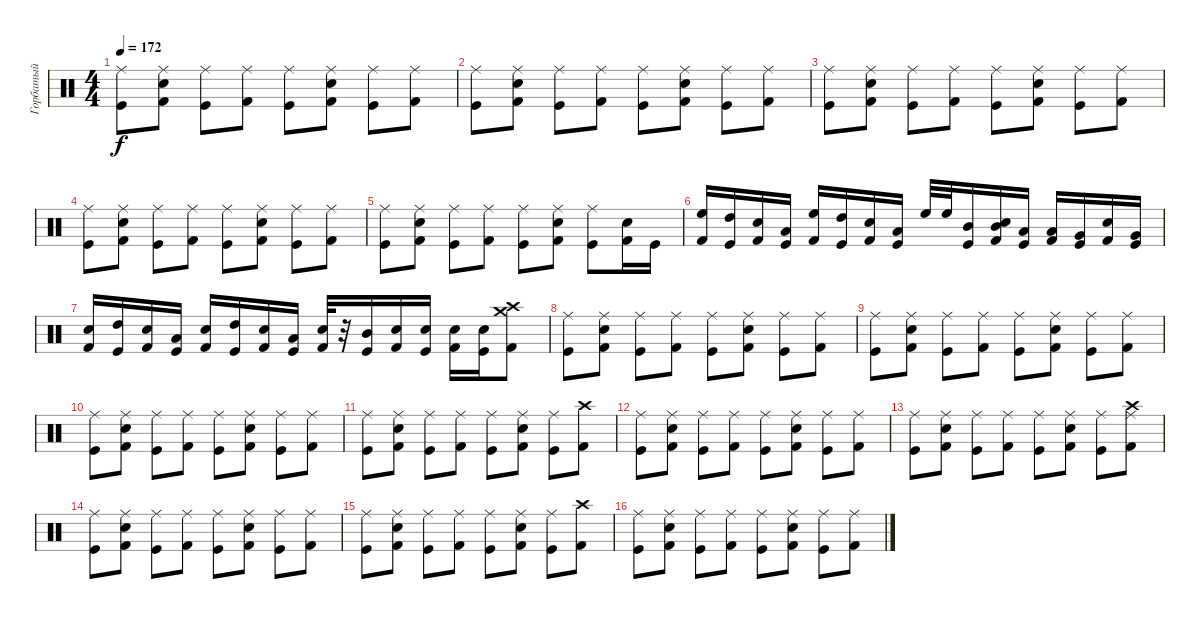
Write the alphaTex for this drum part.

\track ("Горбатый" "Горбатый") {instrument percussion}
\staff {score}
\articulation defaults
\ts (4 4)
\tempo 172
\clef neutral
\ks c
("Ride (middle)" "Kick (hit)").8{dy f} ("Electric Snare (hit)" "Ride (middle)" "Kick (hit) 2").8 ("Ride (middle)" "Kick (hit)").8 ("Ride (middle)" "Kick (hit) 2").8 ("Ride (middle)" "Kick (hit)").8 ("Electric Snare (hit)" "Ride (middle)" "Kick (hit) 2").8 ("Ride (middle)" "Kick (hit)").8 ("Ride (middle)" "Kick (hit) 2").8 |
("Ride (middle)" "Kick (hit)").8 ("Electric Snare (hit)" "Ride (middle)" "Kick (hit) 2").8 ("Ride (middle)" "Kick (hit)").8 ("Ride (middle)" "Kick (hit) 2").8 ("Ride (middle)" "Kick (hit)").8 ("Electric Snare (hit)" "Ride (middle)" "Kick (hit) 2").8 ("Ride (middle)" "Kick (hit)").8 ("Ride (middle)" "Kick (hit) 2").8 |
("Ride (middle)" "Kick (hit)").8 ("Electric Snare (hit)" "Ride (middle)" "Kick (hit) 2").8 ("Ride (middle)" "Kick (hit)").8 ("Ride (middle)" "Kick (hit) 2").8 ("Ride (middle)" "Kick (hit)").8 ("Electric Snare (hit)" "Ride (middle)" "Kick (hit) 2").8 ("Ride (middle)" "Kick (hit)").8 ("Ride (middle)" "Kick (hit) 2").8 |
("Ride (middle)" "Kick (hit)").8 ("Electric Snare (hit)" "Ride (middle)" "Kick (hit) 2").8 ("Ride (middle)" "Kick (hit)").8 ("Ride (middle)" "Kick (hit) 2").8 ("Ride (middle)" "Kick (hit)").8 ("Electric Snare (hit)" "Ride (middle)" "Kick (hit) 2").8 ("Ride (middle)" "Kick (hit)").8 ("Ride (middle)" "Kick (hit) 2").8 |
("Ride (middle)" "Kick (hit)").8 ("Electric Snare (hit)" "Ride (middle)" "Kick (hit) 2").8 ("Ride (middle)" "Kick (hit)").8 ("Ride (middle)" "Kick (hit) 2").8 ("Ride (middle)" "Kick (hit)").8 ("Electric Snare (hit)" "Ride (middle)" "Kick (hit) 2").8 ("Ride (middle)" "Kick (hit)").8 ("Electric Snare (hit)" "Kick (hit) 2").16 "Kick (hit)".16 |
("Kick (hit) 2" "High Floor Tom (hit)").16 ("Kick (hit)" "High Tom (hit)").16 ("Electric Snare (hit)" "Kick (hit) 2").16 ("Kick (hit)" "Low Tom (hit)").16 ("Kick (hit) 2" "High Floor Tom (hit)").16 ("Kick (hit)" "High Tom (hit)").16 ("Electric Snare (hit)" "Kick (hit) 2").16 ("Kick (hit)" "Low Tom (hit)").16 "High Floor Tom (hit)".32 "High Floor Tom (hit)".32 ("Kick (hit)" "Mid Tom (hit)").16 ("Electric Snare (hit)" "Kick (hit) 2" "Mid Tom (hit)").16 ("Kick (hit)" "Low Tom (hit)").16 ("Kick (hit) 2" "Low Tom (hit)").16 ("Kick (hit)" "Very Low Tom (hit)").16 ("Electric Snare (hit)" "Kick (hit) 2").16 ("Kick (hit)" "Very Low Tom (hit)").16 |
("Electric Snare (hit)" "Kick (hit) 2").16 ("Kick (hit)" "High Tom (hit)").16 ("Electric Snare (hit)" "Kick (hit) 2").16 ("Kick (hit)" "Low Tom (hit)").16 ("Electric Snare (hit)" "Kick (hit) 2").16 ("Kick (hit)" "High Tom (hit)").16 ("Electric Snare (hit)" "Kick (hit) 2").16 ("Kick (hit)" "Low Tom (hit)").16 ("Electric Snare (hit)" "Kick (hit) 2").32 r.32 ("Kick (hit)" "Mid Tom (hit)").16 ("Electric Snare (hit)" "Kick (hit) 2").16 ("Electric Snare (hit)" "Kick (hit)").16 ("Electric Snare (hit)" "Kick (hit) 2").16 ("Electric Snare (hit)" "Kick (hit)").16 ("Crash medium (hit)" "Crash high (hit)" "Kick (hit) 2").8 |
("Ride (middle)" "Kick (hit)").8 ("Electric Snare (hit)" "Ride (middle)" "Kick (hit) 2").8 ("Ride (middle)" "Kick (hit)").8 ("Ride (middle)" "Kick (hit) 2").8 ("Ride (middle)" "Kick (hit)").8 ("Electric Snare (hit)" "Ride (middle)" "Kick (hit) 2").8 ("Ride (middle)" "Kick (hit)").8 ("Ride (middle)" "Kick (hit) 2").8 |
("Ride (middle)" "Kick (hit)").8 ("Electric Snare (hit)" "Ride (middle)" "Kick (hit) 2").8 ("Ride (middle)" "Kick (hit)").8 ("Ride (middle)" "Kick (hit) 2").8 ("Ride (middle)" "Kick (hit)").8 ("Electric Snare (hit)" "Ride (middle)" "Kick (hit) 2").8 ("Ride (middle)" "Kick (hit)").8 ("Ride (middle)" "Kick (hit) 2").8 |
("Ride (middle)" "Kick (hit)").8 ("Electric Snare (hit)" "Ride (middle)" "Kick (hit) 2").8 ("Ride (middle)" "Kick (hit)").8 ("Ride (middle)" "Kick (hit) 2").8 ("Ride (middle)" "Kick (hit)").8 ("Electric Snare (hit)" "Ride (middle)" "Kick (hit) 2").8 ("Ride (middle)" "Kick (hit)").8 ("Ride (middle)" "Kick (hit) 2").8 |
("Ride (middle)" "Kick (hit)").8 ("Electric Snare (hit)" "Ride (middle)" "Kick (hit) 2").8 ("Ride (middle)" "Kick (hit)").8 ("Ride (middle)" "Kick (hit) 2").8 ("Ride (middle)" "Kick (hit)").8 ("Electric Snare (hit)" "Ride (middle)" "Kick (hit) 2").8 ("Ride (middle)" "Kick (hit)").8 ("Crash high (hit)" "Kick (hit) 2").8 |
("Ride (middle)" "Kick (hit)").8 ("Electric Snare (hit)" "Ride (middle)" "Kick (hit) 2").8 ("Ride (middle)" "Kick (hit)").8 ("Ride (middle)" "Kick (hit) 2").8 ("Ride (middle)" "Kick (hit)").8 ("Electric Snare (hit)" "Ride (middle)" "Kick (hit) 2").8 ("Ride (middle)" "Kick (hit)").8 ("Ride (middle)" "Kick (hit) 2").8 |
("Ride (middle)" "Kick (hit)").8 ("Electric Snare (hit)" "Ride (middle)" "Kick (hit) 2").8 ("Ride (middle)" "Kick (hit)").8 ("Ride (middle)" "Kick (hit) 2").8 ("Ride (middle)" "Kick (hit)").8 ("Electric Snare (hit)" "Ride (middle)" "Kick (hit) 2").8 ("Ride (middle)" "Kick (hit)").8 ("Ride (middle)" "Crash high (hit)" "Kick (hit) 2").8 |
("Ride (middle)" "Kick (hit)").8 ("Electric Snare (hit)" "Ride (middle)" "Kick (hit) 2").8 ("Ride (middle)" "Kick (hit)").8 ("Ride (middle)" "Kick (hit) 2").8 ("Ride (middle)" "Kick (hit)").8 ("Electric Snare (hit)" "Ride (middle)" "Kick (hit) 2").8 ("Ride (middle)" "Kick (hit)").8 ("Ride (middle)" "Kick (hit) 2").8 |
("Ride (middle)" "Kick (hit)").8 ("Electric Snare (hit)" "Ride (middle)" "Kick (hit) 2").8 ("Ride (middle)" "Kick (hit)").8 ("Ride (middle)" "Kick (hit) 2").8 ("Ride (middle)" "Kick (hit)").8 ("Electric Snare (hit)" "Ride (middle)" "Kick (hit) 2").8 ("Ride (middle)" "Kick (hit)").8 ("Crash high (hit)" "Kick (hit) 2").8 |
("Ride (middle)" "Kick (hit)").8 ("Electric Snare (hit)" "Ride (middle)" "Kick (hit) 2").8 ("Ride (middle)" "Kick (hit)").8 ("Ride (middle)" "Kick (hit) 2").8 ("Ride (middle)" "Kick (hit)").8 ("Electric Snare (hit)" "Ride (middle)" "Kick (hit) 2").8 ("Ride (middle)" "Kick (hit)").8 ("Ride (middle)" "Kick (hit) 2").8
